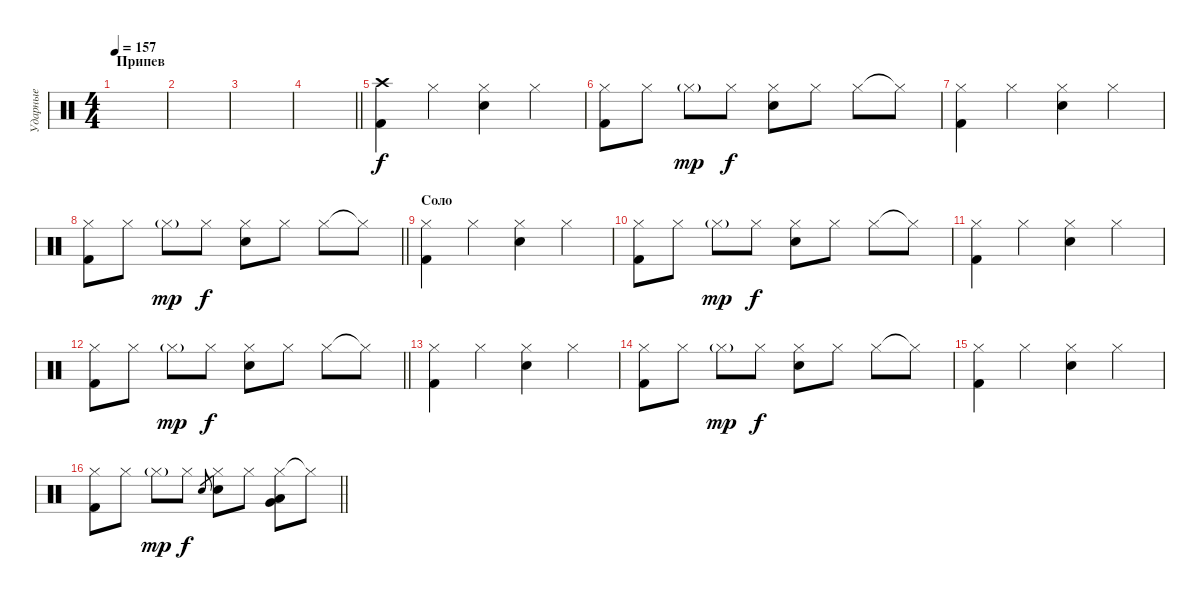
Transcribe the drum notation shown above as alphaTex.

\track ("Ударные" "Ударные") {instrument percussion}
\staff {score}
\articulation defaults
\ts (4 4)
\section ("" "Припев")
\tempo 157
\clef neutral
\ks c
|
|
|
\barLineRight lightlight
|
("Crash high (hit)" "Kick (hit) 2").4 "Hi-Hat (closed)".4 ("Hi-Hat (closed)" "Snare (hit) 2").4 "Hi-Hat (closed)".4 |
("Hi-Hat (closed)" "Kick (hit) 2").8 "Hi-Hat (closed)".8 "Hi-Hat (closed)"{g}.8{dy mp} "Hi-Hat (closed)".8{dy f} ("Hi-Hat (closed)" "Snare (hit) 2").8 "Hi-Hat (closed)".8 "Hi-Hat (closed)".8 "Hi-Hat (closed)"{t}.8 |
("Hi-Hat (closed)" "Kick (hit) 2").4 "Hi-Hat (closed)".4 ("Hi-Hat (closed)" "Snare (hit) 2").4 "Hi-Hat (closed)".4 |
\barLineRight lightlight
("Hi-Hat (closed)" "Kick (hit) 2").8 "Hi-Hat (closed)".8 "Hi-Hat (closed)"{g}.8{dy mp} "Hi-Hat (closed)".8{dy f} ("Hi-Hat (closed)" "Snare (hit) 2").8 "Hi-Hat (closed)".8 "Hi-Hat (closed)".8 "Hi-Hat (closed)"{t}.8 |
\section ("" "Соло")
("Hi-Hat (closed)" "Kick (hit) 2").4 "Hi-Hat (closed)".4 ("Hi-Hat (closed)" "Snare (hit) 2").4 "Hi-Hat (closed)".4 |
("Hi-Hat (closed)" "Kick (hit) 2").8 "Hi-Hat (closed)".8 "Hi-Hat (closed)"{g}.8{dy mp} "Hi-Hat (closed)".8{dy f} ("Hi-Hat (closed)" "Snare (hit) 2").8 "Hi-Hat (closed)".8 "Hi-Hat (closed)".8 "Hi-Hat (closed)"{t}.8 |
("Hi-Hat (closed)" "Kick (hit) 2").4 "Hi-Hat (closed)".4 ("Hi-Hat (closed)" "Snare (hit) 2").4 "Hi-Hat (closed)".4 |
\barLineRight lightlight
("Hi-Hat (closed)" "Kick (hit) 2").8 "Hi-Hat (closed)".8 "Hi-Hat (closed)"{g}.8{dy mp} "Hi-Hat (closed)".8{dy f} ("Hi-Hat (closed)" "Snare (hit) 2").8 "Hi-Hat (closed)".8 "Hi-Hat (closed)".8 "Hi-Hat (closed)"{t}.8 |
("Hi-Hat (closed)" "Kick (hit) 2").4 "Hi-Hat (closed)".4 ("Hi-Hat (closed)" "Snare (hit) 2").4 "Hi-Hat (closed)".4 |
("Hi-Hat (closed)" "Kick (hit) 2").8 "Hi-Hat (closed)".8 "Hi-Hat (closed)"{g}.8{dy mp} "Hi-Hat (closed)".8{dy f} ("Hi-Hat (closed)" "Snare (hit) 2").8 "Hi-Hat (closed)".8 "Hi-Hat (closed)".8 "Hi-Hat (closed)"{t}.8 |
("Hi-Hat (closed)" "Kick (hit) 2").4 "Hi-Hat (closed)".4 ("Hi-Hat (closed)" "Snare (hit) 2").4 "Hi-Hat (closed)".4 |
\barLineRight lightlight
("Hi-Hat (closed)" "Kick (hit) 2").8 "Hi-Hat (closed)".8 "Hi-Hat (closed)"{g}.8{dy mp} "Hi-Hat (closed)".8{dy f} "Snare (hit) 2".8{gr} ("Hi-Hat (closed)" "Snare (hit) 2").8 "Hi-Hat (closed)".8 ("Hi-Hat (closed)" "Very Low Tom (hit)" "Low Tom (hit)").8 "Hi-Hat (closed)"{t}.8
